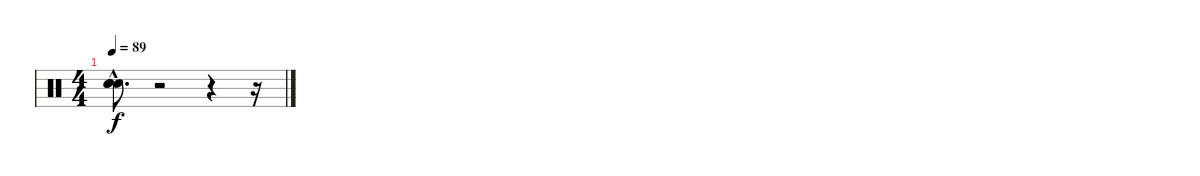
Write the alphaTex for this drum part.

\track "" {instrument percussion}
\staff {score}
\articulation defaults
\ts (4 4)
\tempo 89
\clef neutral
\ks c
("Snare (hit)"{hac t} "Snare (hit)"{hac t} "Snare (hit)"{hac t}).8{d dy f} r.2 r.4 r.16
